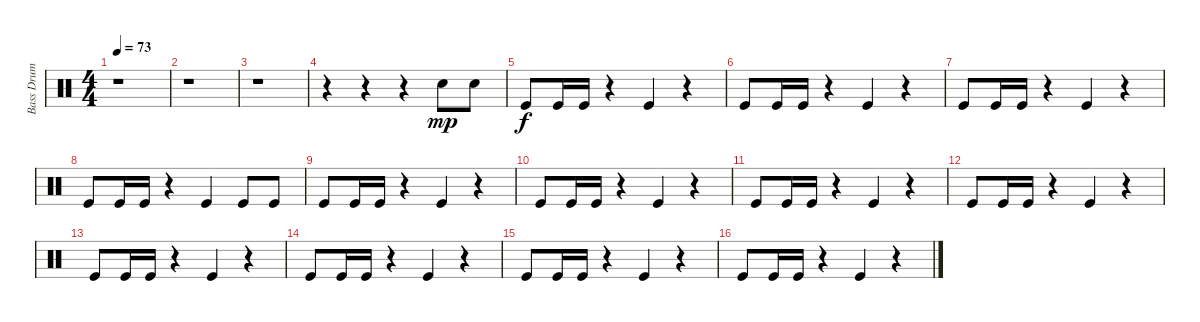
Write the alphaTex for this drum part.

\track ("Bass Drum" "Bass Drum") {instrument percussion}
\staff {score}
\articulation defaults
\ts (4 4)
\tempo 73
\clef neutral
\ks c
r.1{dy mp} |
r.1 |
r.1 |
r.4 r.4 r.4 "Snare (hit) 2".8 "Snare (hit) 2".8 |
"Kick (hit)".8{dy f} "Kick (hit)".16 "Kick (hit)".16 r.4 "Kick (hit)".4 r.4 |
"Kick (hit)".8 "Kick (hit)".16 "Kick (hit)".16 r.4 "Kick (hit)".4 r.4 |
"Kick (hit)".8 "Kick (hit)".16 "Kick (hit)".16 r.4 "Kick (hit)".4 r.4 |
"Kick (hit)".8 "Kick (hit)".16 "Kick (hit)".16 r.4 "Kick (hit)".4 "Kick (hit)".8 "Kick (hit)".8 |
"Kick (hit)".8 "Kick (hit)".16 "Kick (hit)".16 r.4 "Kick (hit)".4 r.4 |
"Kick (hit)".8 "Kick (hit)".16 "Kick (hit)".16 r.4 "Kick (hit)".4 r.4 |
"Kick (hit)".8 "Kick (hit)".16 "Kick (hit)".16 r.4 "Kick (hit)".4 r.4 |
"Kick (hit)".8 "Kick (hit)".16 "Kick (hit)".16 r.4 "Kick (hit)".4 r.4 |
"Kick (hit)".8 "Kick (hit)".16 "Kick (hit)".16 r.4 "Kick (hit)".4 r.4 |
"Kick (hit)".8 "Kick (hit)".16 "Kick (hit)".16 r.4 "Kick (hit)".4 r.4 |
"Kick (hit)".8 "Kick (hit)".16 "Kick (hit)".16 r.4 "Kick (hit)".4 r.4 |
"Kick (hit)".8 "Kick (hit)".16 "Kick (hit)".16 r.4 "Kick (hit)".4 r.4
